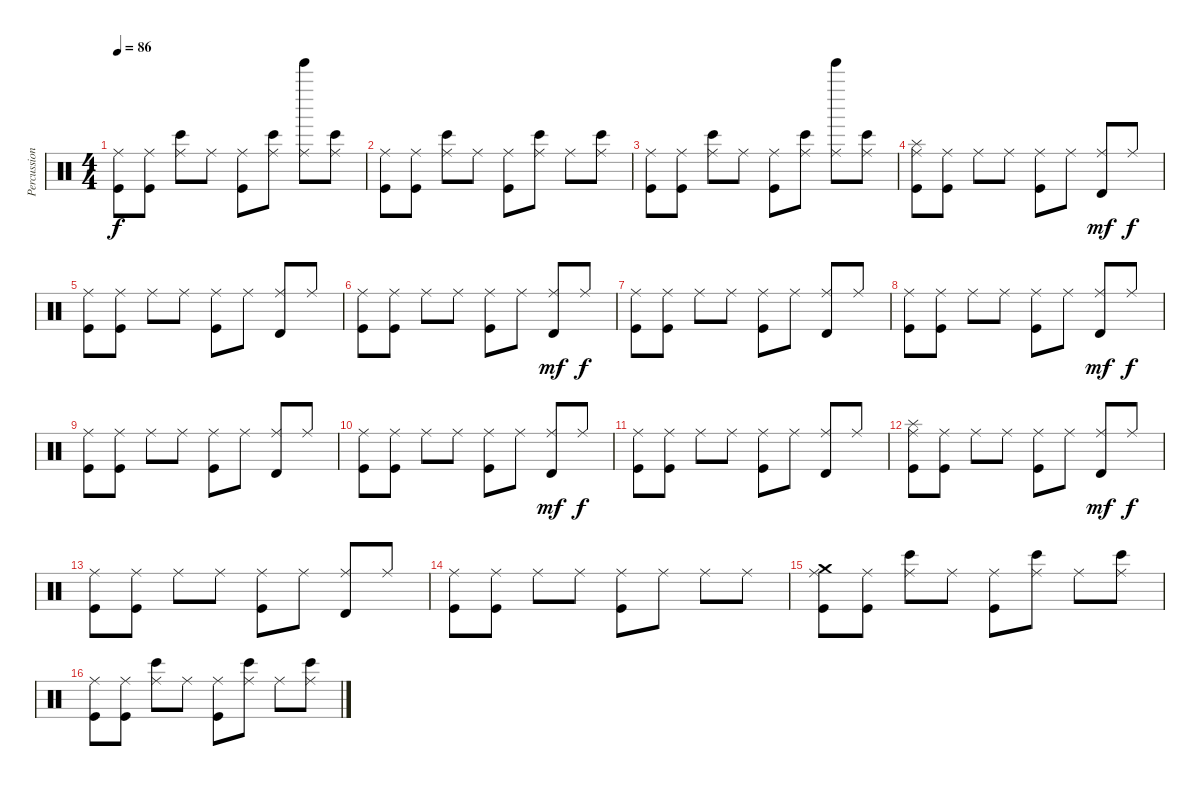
\track ("Percussion" "Percussion") {instrument percussion}
\staff {score}
\articulation defaults
\ts (4 4)
\tempo 86
\clef neutral
\ks c
("Ride (middle)" "Kick (hit)").8{dy f} ("Ride (middle)" "Kick (hit)").8 ("Ride (middle)" "Bongo High (hit)").8 "Ride (middle)".8 ("Ride (middle)" "Kick (hit)").8 ("Ride (middle)" "Bongo High (hit)").8 ("Ride (middle)" "Tinkle Bell (hit)").8 ("Ride (middle)" "Bongo High (hit)").8 |
("Ride (middle)" "Kick (hit)").8 ("Ride (middle)" "Kick (hit)").8 ("Ride (middle)" "Bongo High (hit)").8 "Ride (middle)".8 ("Ride (middle)" "Kick (hit)").8 ("Ride (middle)" "Bongo High (hit)").8 "Ride (middle)".8 ("Ride (middle)" "Bongo High (hit)").8 |
("Ride (middle)" "Kick (hit)").8 ("Ride (middle)" "Kick (hit)").8 ("Ride (middle)" "Bongo High (hit)").8 "Ride (middle)".8 ("Ride (middle)" "Kick (hit)").8 ("Ride (middle)" "Bongo High (hit)").8 ("Ride (middle)" "Tinkle Bell (hit)").8 ("Ride (middle)" "Bongo High (hit)").8 |
("Ride (middle)" "Kick (hit)" "Splash (hit)").8 ("Ride (middle)" "Kick (hit)").8 "Ride (middle)".8 "Ride (middle)".8 ("Ride (middle)" "Kick (hit)").8 "Ride (middle)".8 ("Ride (middle)" "Timbale high (hit)").8{dy mf} "Ride (middle)".8{dy f} |
("Ride (middle)" "Kick (hit)").8 ("Ride (middle)" "Kick (hit)").8 "Ride (middle)".8 "Ride (middle)".8 ("Ride (middle)" "Kick (hit)").8 "Ride (middle)".8 ("Ride (middle)" "Timbale high (hit)").8 "Ride (middle)".8 |
("Ride (middle)" "Kick (hit)").8 ("Ride (middle)" "Kick (hit)").8 "Ride (middle)".8 "Ride (middle)".8 ("Ride (middle)" "Kick (hit)").8 "Ride (middle)".8 ("Ride (middle)" "Timbale high (hit)").8{dy mf} "Ride (middle)".8{dy f} |
("Ride (middle)" "Kick (hit)").8 ("Ride (middle)" "Kick (hit)").8 "Ride (middle)".8 "Ride (middle)".8 ("Ride (middle)" "Kick (hit)").8 "Ride (middle)".8 ("Ride (middle)" "Timbale high (hit)").8 "Ride (middle)".8 |
("Ride (middle)" "Kick (hit)").8 ("Ride (middle)" "Kick (hit)").8 "Ride (middle)".8 "Ride (middle)".8 ("Ride (middle)" "Kick (hit)").8 "Ride (middle)".8 ("Ride (middle)" "Timbale high (hit)").8{dy mf} "Ride (middle)".8{dy f} |
("Ride (middle)" "Kick (hit)").8 ("Ride (middle)" "Kick (hit)").8 "Ride (middle)".8 "Ride (middle)".8 ("Ride (middle)" "Kick (hit)").8 "Ride (middle)".8 ("Ride (middle)" "Timbale high (hit)").8 "Ride (middle)".8 |
("Ride (middle)" "Kick (hit)").8 ("Ride (middle)" "Kick (hit)").8 "Ride (middle)".8 "Ride (middle)".8 ("Ride (middle)" "Kick (hit)").8 "Ride (middle)".8 ("Ride (middle)" "Timbale high (hit)").8{dy mf} "Ride (middle)".8{dy f} |
("Ride (middle)" "Kick (hit)").8 ("Ride (middle)" "Kick (hit)").8 "Ride (middle)".8 "Ride (middle)".8 ("Ride (middle)" "Kick (hit)").8 "Ride (middle)".8 ("Ride (middle)" "Timbale high (hit)").8 "Ride (middle)".8 |
("Ride (middle)" "Kick (hit)" "Splash (hit)").8 ("Ride (middle)" "Kick (hit)").8 "Ride (middle)".8 "Ride (middle)".8 ("Ride (middle)" "Kick (hit)").8 "Ride (middle)".8 ("Ride (middle)" "Timbale high (hit)").8{dy mf} "Ride (middle)".8{dy f} |
("Ride (middle)" "Kick (hit)").8 ("Ride (middle)" "Kick (hit)").8 "Ride (middle)".8 "Ride (middle)".8 ("Ride (middle)" "Kick (hit)").8 "Ride (middle)".8 ("Ride (middle)" "Timbale high (hit)").8 "Ride (middle)".8 |
("Ride (middle)" "Kick (hit)").8 ("Ride (middle)" "Kick (hit)").8 "Ride (middle)".8 "Ride (middle)".8 ("Ride (middle)" "Kick (hit)").8 "Ride (middle)".8 "Ride (middle)".8 "Ride (middle)".8 |
("Ride (middle)" "Kick (hit)" "Crash medium (hit)").8 ("Ride (middle)" "Kick (hit)").8 ("Ride (middle)" "Bongo High (hit)").8 "Ride (middle)".8 ("Ride (middle)" "Kick (hit)").8 ("Ride (middle)" "Bongo High (hit)").8 "Ride (middle)".8 ("Ride (middle)" "Bongo High (hit)").8 |
("Ride (middle)" "Kick (hit)").8 ("Ride (middle)" "Kick (hit)").8 ("Ride (middle)" "Bongo High (hit)").8 "Ride (middle)".8 ("Ride (middle)" "Kick (hit)").8 ("Ride (middle)" "Bongo High (hit)").8 "Ride (middle)".8 ("Ride (middle)" "Bongo High (hit)").8
